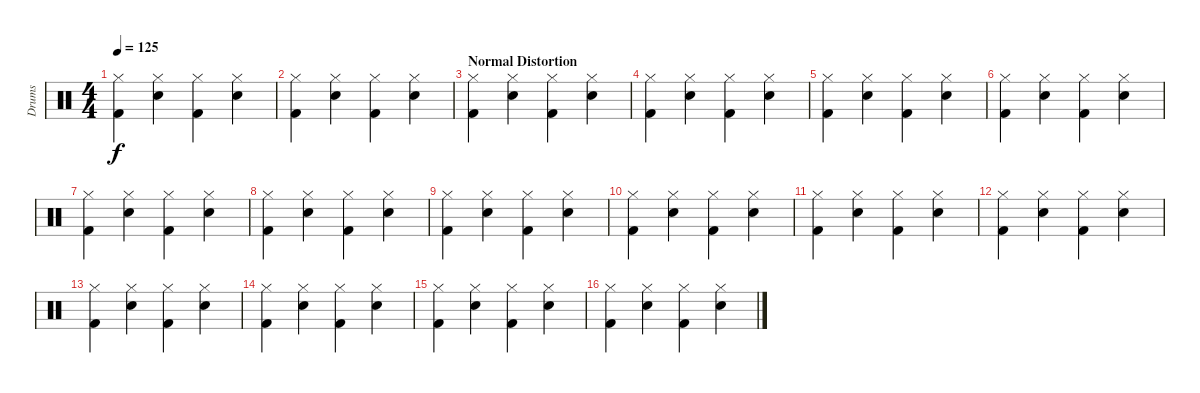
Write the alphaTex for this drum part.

\track ("Drums" "Drums") {instrument percussion}
\staff {score}
\articulation defaults
\ts (4 4)
\tempo 125
\clef neutral
\ks c
("Hi-Hat (closed)" "Kick (hit) 2").4{dy f} ("Hi-Hat (closed)" "Snare (hit) 2").4 ("Hi-Hat (closed)" "Kick (hit) 2").4 ("Hi-Hat (closed)" "Snare (hit) 2").4 |
("Hi-Hat (closed)" "Kick (hit) 2").4 ("Hi-Hat (closed)" "Snare (hit) 2").4 ("Hi-Hat (closed)" "Kick (hit) 2").4 ("Hi-Hat (closed)" "Snare (hit) 2").4 |
\section ("" "Normal Distortion")
("Hi-Hat (closed)" "Kick (hit) 2").4 ("Hi-Hat (closed)" "Snare (hit) 2").4 ("Hi-Hat (closed)" "Kick (hit) 2").4 ("Hi-Hat (closed)" "Snare (hit) 2").4 |
("Hi-Hat (closed)" "Kick (hit) 2").4 ("Hi-Hat (closed)" "Snare (hit) 2").4 ("Hi-Hat (closed)" "Kick (hit) 2").4 ("Hi-Hat (closed)" "Snare (hit) 2").4 |
("Hi-Hat (closed)" "Kick (hit) 2").4 ("Hi-Hat (closed)" "Snare (hit) 2").4 ("Hi-Hat (closed)" "Kick (hit) 2").4 ("Hi-Hat (closed)" "Snare (hit) 2").4 |
("Hi-Hat (closed)" "Kick (hit) 2").4 ("Hi-Hat (closed)" "Snare (hit) 2").4 ("Hi-Hat (closed)" "Kick (hit) 2").4 ("Hi-Hat (closed)" "Snare (hit) 2").4 |
("Hi-Hat (closed)" "Kick (hit) 2").4 ("Hi-Hat (closed)" "Snare (hit) 2").4 ("Hi-Hat (closed)" "Kick (hit) 2").4 ("Hi-Hat (closed)" "Snare (hit) 2").4 |
("Hi-Hat (closed)" "Kick (hit) 2").4 ("Hi-Hat (closed)" "Snare (hit) 2").4 ("Hi-Hat (closed)" "Kick (hit) 2").4 ("Hi-Hat (closed)" "Snare (hit) 2").4 |
("Hi-Hat (closed)" "Kick (hit) 2").4 ("Hi-Hat (closed)" "Snare (hit) 2").4 ("Hi-Hat (closed)" "Kick (hit) 2").4 ("Hi-Hat (closed)" "Snare (hit) 2").4 |
("Hi-Hat (closed)" "Kick (hit) 2").4 ("Hi-Hat (closed)" "Snare (hit) 2").4 ("Hi-Hat (closed)" "Kick (hit) 2").4 ("Hi-Hat (closed)" "Snare (hit) 2").4 |
("Hi-Hat (closed)" "Kick (hit) 2").4 ("Hi-Hat (closed)" "Snare (hit) 2").4 ("Hi-Hat (closed)" "Kick (hit) 2").4 ("Hi-Hat (closed)" "Snare (hit) 2").4 |
("Hi-Hat (closed)" "Kick (hit) 2").4 ("Hi-Hat (closed)" "Snare (hit) 2").4 ("Hi-Hat (closed)" "Kick (hit) 2").4 ("Hi-Hat (closed)" "Snare (hit) 2").4 |
("Hi-Hat (closed)" "Kick (hit) 2").4 ("Hi-Hat (closed)" "Snare (hit) 2").4 ("Hi-Hat (closed)" "Kick (hit) 2").4 ("Hi-Hat (closed)" "Snare (hit) 2").4 |
("Hi-Hat (closed)" "Kick (hit) 2").4 ("Hi-Hat (closed)" "Snare (hit) 2").4 ("Hi-Hat (closed)" "Kick (hit) 2").4 ("Hi-Hat (closed)" "Snare (hit) 2").4 |
("Hi-Hat (closed)" "Kick (hit) 2").4 ("Hi-Hat (closed)" "Snare (hit) 2").4 ("Hi-Hat (closed)" "Kick (hit) 2").4 ("Hi-Hat (closed)" "Snare (hit) 2").4 |
("Hi-Hat (closed)" "Kick (hit) 2").4 ("Hi-Hat (closed)" "Snare (hit) 2").4 ("Hi-Hat (closed)" "Kick (hit) 2").4 ("Hi-Hat (closed)" "Snare (hit) 2").4
